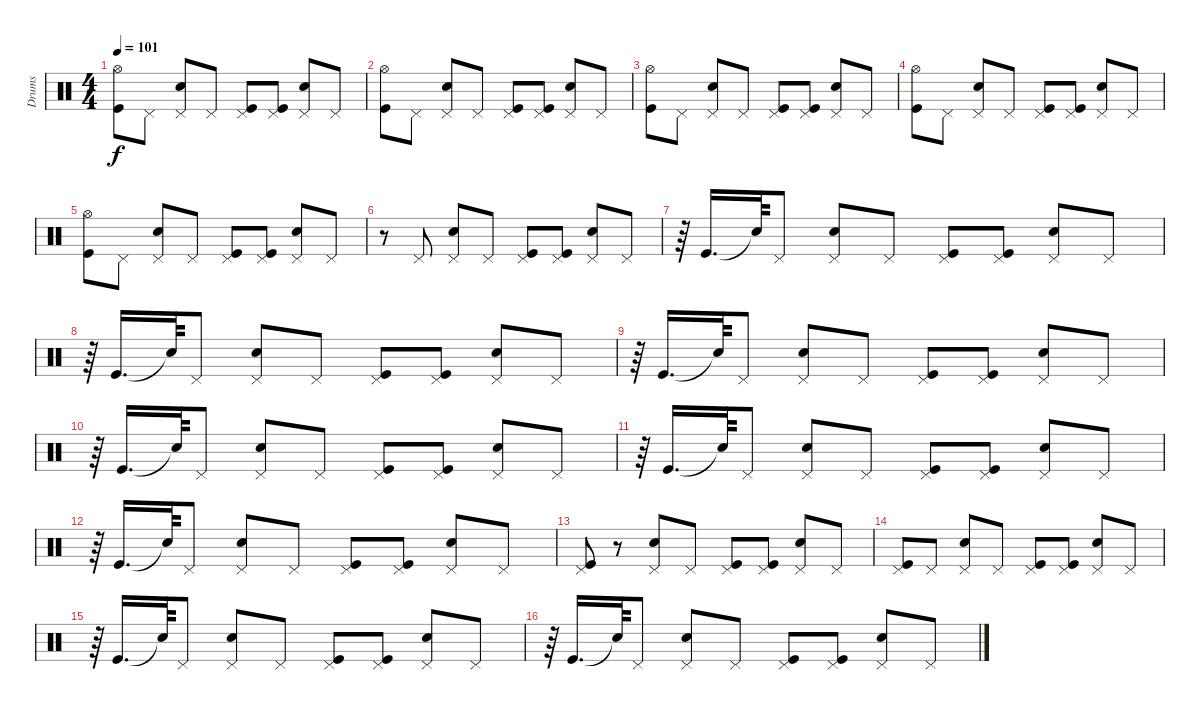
\track ("Drums" "Drums") {instrument percussion}
\staff {score}
\articulation defaults
\ts (4 4)
\tempo 101
\clef neutral
\ks c
("Kick (hit)" "Hi-Hat (open)").8{dy f} "Pedal Hi-Hat (hit)".8 ("Electric Snare (hit)" "Pedal Hi-Hat (hit)").8 "Pedal Hi-Hat (hit)".8 ("Kick (hit)" "Pedal Hi-Hat (hit)").8 ("Kick (hit)" "Pedal Hi-Hat (hit)").8 ("Electric Snare (hit)" "Pedal Hi-Hat (hit)").8 "Pedal Hi-Hat (hit)".8 |
("Kick (hit)" "Hi-Hat (open)").8 "Pedal Hi-Hat (hit)".8 ("Electric Snare (hit)" "Pedal Hi-Hat (hit)").8 "Pedal Hi-Hat (hit)".8 ("Kick (hit)" "Pedal Hi-Hat (hit)").8 ("Kick (hit)" "Pedal Hi-Hat (hit)").8 ("Electric Snare (hit)" "Pedal Hi-Hat (hit)").8 "Pedal Hi-Hat (hit)".8 |
("Kick (hit)" "Hi-Hat (open)").8 "Pedal Hi-Hat (hit)".8 ("Electric Snare (hit)" "Pedal Hi-Hat (hit)").8 "Pedal Hi-Hat (hit)".8 ("Kick (hit)" "Pedal Hi-Hat (hit)").8 ("Kick (hit)" "Pedal Hi-Hat (hit)").8 ("Electric Snare (hit)" "Pedal Hi-Hat (hit)").8 "Pedal Hi-Hat (hit)".8 |
("Kick (hit)" "Hi-Hat (open)").8 "Pedal Hi-Hat (hit)".8 ("Electric Snare (hit)" "Pedal Hi-Hat (hit)").8 "Pedal Hi-Hat (hit)".8 ("Kick (hit)" "Pedal Hi-Hat (hit)").8 ("Kick (hit)" "Pedal Hi-Hat (hit)").8 ("Electric Snare (hit)" "Pedal Hi-Hat (hit)").8 "Pedal Hi-Hat (hit)".8 |
("Kick (hit)" "Hi-Hat (open)").8 "Pedal Hi-Hat (hit)".8 ("Electric Snare (hit)" "Pedal Hi-Hat (hit)").8 "Pedal Hi-Hat (hit)".8 ("Kick (hit)" "Pedal Hi-Hat (hit)").8 ("Kick (hit)" "Pedal Hi-Hat (hit)").8 ("Electric Snare (hit)" "Pedal Hi-Hat (hit)").8 "Pedal Hi-Hat (hit)".8 |
r.8 "Pedal Hi-Hat (hit)".8 ("Electric Snare (hit)" "Pedal Hi-Hat (hit)").8 "Pedal Hi-Hat (hit)".8 ("Kick (hit)" "Pedal Hi-Hat (hit)").8 ("Kick (hit)" "Pedal Hi-Hat (hit)").8 ("Electric Snare (hit)" "Pedal Hi-Hat (hit)").8 "Pedal Hi-Hat (hit)".8 |
r.64 "Kick (hit)".16{d} "Snare (hit)"{t}.64 "Pedal Hi-Hat (hit)".8 ("Electric Snare (hit)" "Pedal Hi-Hat (hit)").8 "Pedal Hi-Hat (hit)".8 ("Kick (hit)" "Pedal Hi-Hat (hit)").8 ("Kick (hit)" "Pedal Hi-Hat (hit)").8 ("Electric Snare (hit)" "Pedal Hi-Hat (hit)").8 "Pedal Hi-Hat (hit)".8 |
r.64 "Kick (hit)".16{d} "Snare (hit)"{t}.64 "Pedal Hi-Hat (hit)".8 ("Electric Snare (hit)" "Pedal Hi-Hat (hit)").8 "Pedal Hi-Hat (hit)".8 ("Kick (hit)" "Pedal Hi-Hat (hit)").8 ("Kick (hit)" "Pedal Hi-Hat (hit)").8 ("Electric Snare (hit)" "Pedal Hi-Hat (hit)").8 "Pedal Hi-Hat (hit)".8 |
r.64 "Kick (hit)".16{d} "Snare (hit)"{t}.64 "Pedal Hi-Hat (hit)".8 ("Electric Snare (hit)" "Pedal Hi-Hat (hit)").8 "Pedal Hi-Hat (hit)".8 ("Kick (hit)" "Pedal Hi-Hat (hit)").8 ("Kick (hit)" "Pedal Hi-Hat (hit)").8 ("Electric Snare (hit)" "Pedal Hi-Hat (hit)").8 "Pedal Hi-Hat (hit)".8 |
r.64 "Kick (hit)".16{d} "Snare (hit)"{t}.64 "Pedal Hi-Hat (hit)".8 ("Electric Snare (hit)" "Pedal Hi-Hat (hit)").8 "Pedal Hi-Hat (hit)".8 ("Kick (hit)" "Pedal Hi-Hat (hit)").8 ("Kick (hit)" "Pedal Hi-Hat (hit)").8 ("Electric Snare (hit)" "Pedal Hi-Hat (hit)").8 "Pedal Hi-Hat (hit)".8 |
r.64 "Kick (hit)".16{d} "Snare (hit)"{t}.64 "Pedal Hi-Hat (hit)".8 ("Electric Snare (hit)" "Pedal Hi-Hat (hit)").8 "Pedal Hi-Hat (hit)".8 ("Kick (hit)" "Pedal Hi-Hat (hit)").8 ("Kick (hit)" "Pedal Hi-Hat (hit)").8 ("Electric Snare (hit)" "Pedal Hi-Hat (hit)").8 "Pedal Hi-Hat (hit)".8 |
r.64 "Kick (hit)".16{d} "Snare (hit)"{t}.64 "Pedal Hi-Hat (hit)".8 ("Electric Snare (hit)" "Pedal Hi-Hat (hit)").8 "Pedal Hi-Hat (hit)".8 ("Kick (hit)" "Pedal Hi-Hat (hit)").8 ("Kick (hit)" "Pedal Hi-Hat (hit)").8 ("Electric Snare (hit)" "Pedal Hi-Hat (hit)").8 "Pedal Hi-Hat (hit)".8 |
("Kick (hit)" "Pedal Hi-Hat (hit)").8 r.8 ("Electric Snare (hit)" "Pedal Hi-Hat (hit)").8 "Pedal Hi-Hat (hit)".8 ("Kick (hit)" "Pedal Hi-Hat (hit)").8 ("Kick (hit)" "Pedal Hi-Hat (hit)").8 ("Electric Snare (hit)" "Pedal Hi-Hat (hit)").8 "Pedal Hi-Hat (hit)".8 |
("Kick (hit)" "Pedal Hi-Hat (hit)").8 "Pedal Hi-Hat (hit)".8 ("Electric Snare (hit)" "Pedal Hi-Hat (hit)").8 "Pedal Hi-Hat (hit)".8 ("Kick (hit)" "Pedal Hi-Hat (hit)").8 ("Kick (hit)" "Pedal Hi-Hat (hit)").8 ("Electric Snare (hit)" "Pedal Hi-Hat (hit)").8 "Pedal Hi-Hat (hit)".8 |
r.64 "Kick (hit)".16{d} "Snare (hit)"{t}.64 "Pedal Hi-Hat (hit)".8 ("Electric Snare (hit)" "Pedal Hi-Hat (hit)").8 "Pedal Hi-Hat (hit)".8 ("Kick (hit)" "Pedal Hi-Hat (hit)").8 ("Kick (hit)" "Pedal Hi-Hat (hit)").8 ("Electric Snare (hit)" "Pedal Hi-Hat (hit)").8 "Pedal Hi-Hat (hit)".8 |
r.64 "Kick (hit)".16{d} "Snare (hit)"{t}.64 "Pedal Hi-Hat (hit)".8 ("Electric Snare (hit)" "Pedal Hi-Hat (hit)").8 "Pedal Hi-Hat (hit)".8 ("Kick (hit)" "Pedal Hi-Hat (hit)").8 ("Kick (hit)" "Pedal Hi-Hat (hit)").8 ("Electric Snare (hit)" "Pedal Hi-Hat (hit)").8 "Pedal Hi-Hat (hit)".8
